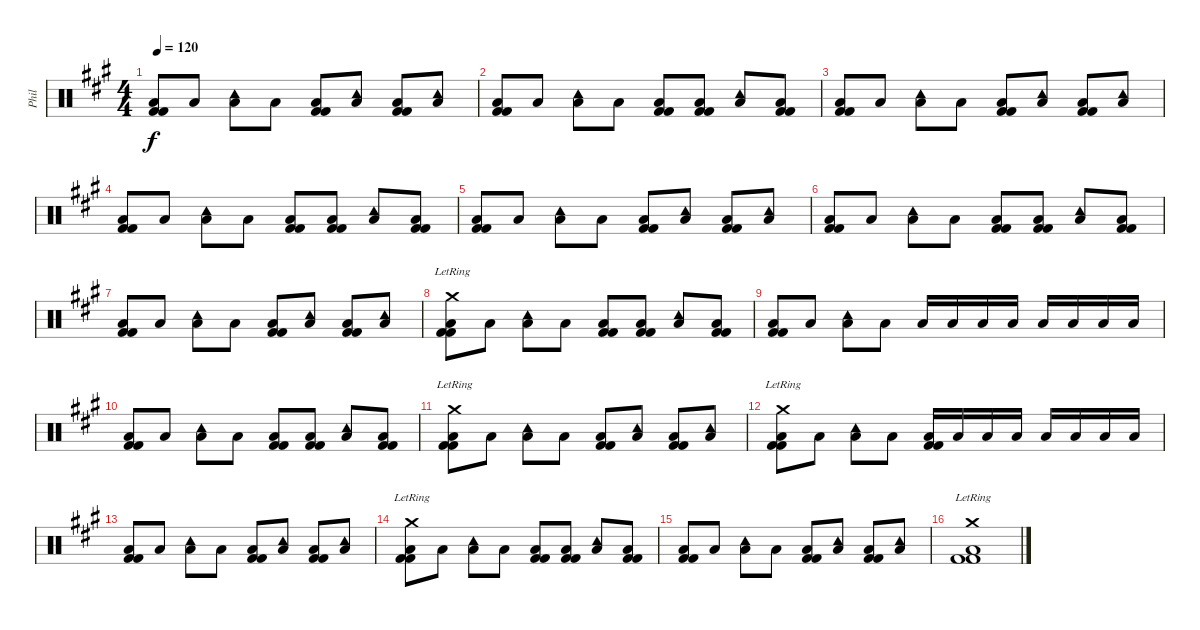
\track ("Phil" "Phil") {instrument percussion}
\staff {score}
\articulation defaults
\ts (4 4)
\tempo 120
\clef neutral
\ks a
("Kick (hit) 2" "Low Floor Tom (hit)" "Kick (hit) 2").8{dy f} "Low Floor Tom (hit)".8 ("Low Floor Tom (hit)" "Tambourine (hit)").8 "Low Floor Tom (hit)".8 ("Kick (hit) 2" "Low Floor Tom (hit)" "Kick (hit) 2").8 ("Low Floor Tom (hit)" "Tambourine (hit)").8 ("Kick (hit) 2" "Low Floor Tom (hit)" "Kick (hit) 2").8 ("Low Floor Tom (hit)" "Tambourine (hit)").8 |
("Kick (hit) 2" "Low Floor Tom (hit)" "Kick (hit) 2").8 "Low Floor Tom (hit)".8 ("Low Floor Tom (hit)" "Tambourine (hit)").8 "Low Floor Tom (hit)".8 ("Kick (hit) 2" "Low Floor Tom (hit)" "Kick (hit) 2").8 ("Kick (hit) 2" "Low Floor Tom (hit)" "Kick (hit) 2").8 ("Low Floor Tom (hit)" "Tambourine (hit)").8 ("Kick (hit) 2" "Low Floor Tom (hit)" "Kick (hit) 2").8 |
("Kick (hit) 2" "Low Floor Tom (hit)" "Kick (hit) 2").8 "Low Floor Tom (hit)".8 ("Low Floor Tom (hit)" "Tambourine (hit)").8 "Low Floor Tom (hit)".8 ("Kick (hit) 2" "Low Floor Tom (hit)" "Kick (hit) 2").8 ("Low Floor Tom (hit)" "Tambourine (hit)").8 ("Kick (hit) 2" "Low Floor Tom (hit)" "Kick (hit) 2").8 ("Low Floor Tom (hit)" "Tambourine (hit)").8 |
("Kick (hit) 2" "Low Floor Tom (hit)" "Kick (hit) 2").8 "Low Floor Tom (hit)".8 ("Low Floor Tom (hit)" "Tambourine (hit)").8 "Low Floor Tom (hit)".8 ("Kick (hit) 2" "Low Floor Tom (hit)" "Kick (hit) 2").8 ("Kick (hit) 2" "Low Floor Tom (hit)" "Kick (hit) 2").8 ("Low Floor Tom (hit)" "Tambourine (hit)").8 ("Kick (hit) 2" "Low Floor Tom (hit)" "Kick (hit) 2").8 |
("Kick (hit) 2" "Low Floor Tom (hit)" "Kick (hit) 2").8 "Low Floor Tom (hit)".8 ("Low Floor Tom (hit)" "Tambourine (hit)").8 "Low Floor Tom (hit)".8 ("Kick (hit) 2" "Low Floor Tom (hit)" "Kick (hit) 2").8 ("Low Floor Tom (hit)" "Tambourine (hit)").8 ("Kick (hit) 2" "Low Floor Tom (hit)" "Kick (hit) 2").8 ("Low Floor Tom (hit)" "Tambourine (hit)").8 |
("Kick (hit) 2" "Low Floor Tom (hit)" "Kick (hit) 2").8 "Low Floor Tom (hit)".8 ("Low Floor Tom (hit)" "Tambourine (hit)").8 "Low Floor Tom (hit)".8 ("Kick (hit) 2" "Low Floor Tom (hit)" "Kick (hit) 2").8 ("Kick (hit) 2" "Low Floor Tom (hit)" "Kick (hit) 2").8 ("Low Floor Tom (hit)" "Tambourine (hit)").8 ("Kick (hit) 2" "Low Floor Tom (hit)" "Kick (hit) 2").8 |
("Kick (hit) 2" "Low Floor Tom (hit)" "Kick (hit) 2").8 "Low Floor Tom (hit)".8 ("Low Floor Tom (hit)" "Tambourine (hit)").8 "Low Floor Tom (hit)".8 ("Kick (hit) 2" "Low Floor Tom (hit)" "Kick (hit) 2").8 ("Low Floor Tom (hit)" "Tambourine (hit)").8 ("Kick (hit) 2" "Low Floor Tom (hit)" "Kick (hit) 2").8 ("Low Floor Tom (hit)" "Tambourine (hit)").8 |
("Kick (hit) 2" "Low Floor Tom (hit)" "Kick (hit) 2" "Crash medium (hit)"{lr}).8 "Low Floor Tom (hit)".8 ("Low Floor Tom (hit)" "Tambourine (hit)").8 "Low Floor Tom (hit)".8 ("Kick (hit) 2" "Low Floor Tom (hit)" "Kick (hit) 2").8 ("Kick (hit) 2" "Low Floor Tom (hit)" "Kick (hit) 2").8 ("Low Floor Tom (hit)" "Tambourine (hit)").8 ("Kick (hit) 2" "Low Floor Tom (hit)" "Kick (hit) 2").8 |
("Kick (hit) 2" "Low Floor Tom (hit)" "Kick (hit) 2").8 "Low Floor Tom (hit)".8 ("Low Floor Tom (hit)" "Tambourine (hit)").8 "Low Floor Tom (hit)".8 "Low Floor Tom (hit)".16 "Low Tom (hit)".16 "Low Tom (hit)".16 "Low Floor Tom (hit)".16 "Low Floor Tom (hit)".16 "Low Tom (hit)".16 "Low Tom (hit)".16 "Low Floor Tom (hit)".16 |
("Kick (hit) 2" "Low Floor Tom (hit)" "Kick (hit) 2").8 "Low Floor Tom (hit)".8 ("Low Floor Tom (hit)" "Tambourine (hit)").8 "Low Floor Tom (hit)".8 ("Kick (hit) 2" "Low Floor Tom (hit)" "Kick (hit) 2").8 ("Kick (hit) 2" "Low Floor Tom (hit)" "Kick (hit) 2").8 ("Low Floor Tom (hit)" "Tambourine (hit)").8 ("Kick (hit) 2" "Low Floor Tom (hit)" "Kick (hit) 2").8 |
("Kick (hit) 2" "Low Floor Tom (hit)" "Kick (hit) 2" "Crash medium (hit)"{lr}).8 "Low Floor Tom (hit)".8 ("Low Floor Tom (hit)" "Tambourine (hit)").8 "Low Floor Tom (hit)".8 ("Kick (hit) 2" "Low Floor Tom (hit)" "Kick (hit) 2").8 ("Low Floor Tom (hit)" "Tambourine (hit)").8 ("Kick (hit) 2" "Low Floor Tom (hit)" "Kick (hit) 2").8 ("Low Floor Tom (hit)" "Tambourine (hit)").8 |
("Kick (hit) 2" "Low Floor Tom (hit)" "Kick (hit) 2" "Crash medium (hit)"{lr}).8 "Low Floor Tom (hit)".8 ("Low Floor Tom (hit)" "Tambourine (hit)").8 "Low Floor Tom (hit)".8 ("Kick (hit) 2" "Low Floor Tom (hit)" "Kick (hit) 2").16 "Low Tom (hit)".16 "Low Tom (hit)".16 "Low Floor Tom (hit)".16 "Low Floor Tom (hit)".16 "Low Tom (hit)".16 "Low Tom (hit)".16 "Low Floor Tom (hit)".16 |
("Kick (hit) 2" "Low Floor Tom (hit)" "Kick (hit) 2").8 "Low Floor Tom (hit)".8 ("Low Floor Tom (hit)" "Tambourine (hit)").8 "Low Floor Tom (hit)".8 ("Kick (hit) 2" "Low Floor Tom (hit)" "Kick (hit) 2").8 ("Low Floor Tom (hit)" "Tambourine (hit)").8 ("Kick (hit) 2" "Low Floor Tom (hit)" "Kick (hit) 2").8 ("Low Floor Tom (hit)" "Tambourine (hit)").8 |
("Kick (hit) 2" "Low Floor Tom (hit)" "Kick (hit) 2" "Crash medium (hit)"{lr}).8 "Low Floor Tom (hit)".8 ("Low Floor Tom (hit)" "Tambourine (hit)").8 "Low Floor Tom (hit)".8 ("Kick (hit) 2" "Low Floor Tom (hit)" "Kick (hit) 2").8 ("Kick (hit) 2" "Low Floor Tom (hit)" "Kick (hit) 2").8 ("Low Floor Tom (hit)" "Tambourine (hit)").8 ("Kick (hit) 2" "Low Floor Tom (hit)" "Kick (hit) 2").8 |
("Kick (hit) 2" "Low Floor Tom (hit)" "Kick (hit) 2").8 "Low Floor Tom (hit)".8 ("Low Floor Tom (hit)" "Tambourine (hit)").8 "Low Floor Tom (hit)".8 ("Kick (hit) 2" "Low Floor Tom (hit)" "Kick (hit) 2").8 ("Low Floor Tom (hit)" "Tambourine (hit)").8 ("Kick (hit) 2" "Low Floor Tom (hit)" "Kick (hit) 2").8 ("Low Floor Tom (hit)" "Tambourine (hit)").8 |
("Kick (hit) 2" "Low Floor Tom (hit)" "Kick (hit) 2" "Crash medium (hit)"{lr}).1
